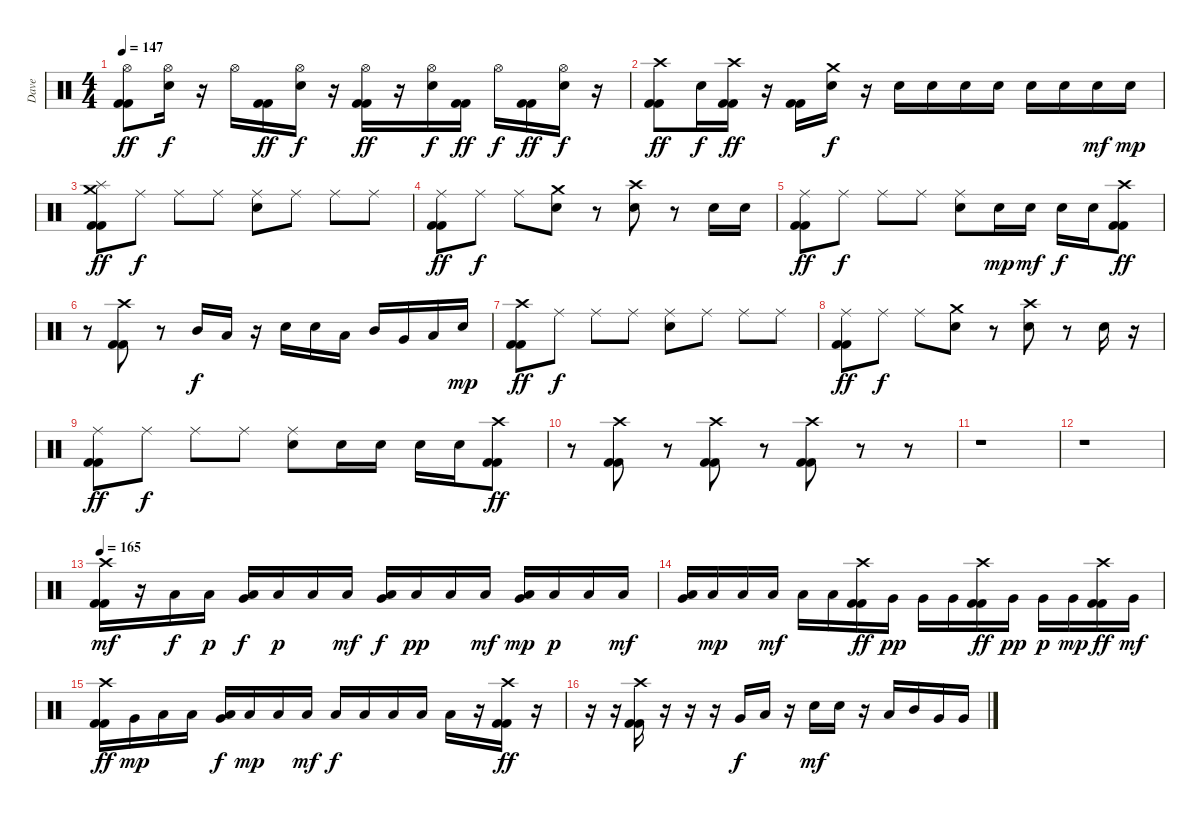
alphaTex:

\track ("Dave" "Dave") {instrument percussion}
\staff {score}
\articulation defaults
\ts (4 4)
\tempo 147
\clef neutral
\ks c
("Hi-Hat (open)" "Kick (hit) 2" "Kick (hit) 2").8{dy ff} ("Hi-Hat (open)" "Electric Snare (hit)").16{dy f} r.16 "Hi-Hat (open)".16 ("Kick (hit) 2" "Kick (hit) 2").16{dy ff} ("Hi-Hat (open)" "Electric Snare (hit)").16{dy f} r.16 ("Hi-Hat (open)" "Kick (hit) 2" "Kick (hit) 2").16{dy ff} r.16 ("Hi-Hat (open)" "Electric Snare (hit)").16{dy f} ("Kick (hit) 2" "Kick (hit) 2").16{dy ff} "Hi-Hat (open)".16{dy f} ("Kick (hit) 2" "Kick (hit) 2").16{dy ff} ("Hi-Hat (open)" "Electric Snare (hit)").16{dy f} r.16 |
("Crash high (hit)" "Kick (hit) 2" "Kick (hit) 2").8{dy ff} "Electric Snare (hit)".16{dy f} ("Crash high (hit)" "Kick (hit) 2" "Kick (hit) 2").16{dy ff} r.16 ("Kick (hit) 2" "Kick (hit) 2").16 ("Crash medium (hit)" "Electric Snare (hit)").16{dy f} r.16 "Electric Snare (hit)".16 "Electric Snare (hit)".16 "Electric Snare (hit)".16 "Electric Snare (hit)".16 "Electric Snare (hit)".16 "Electric Snare (hit)".16 "Electric Snare (hit)".16{dy mf} "Electric Snare (hit)".16{dy mp} |
("Splash (hit)" "Crash medium (hit)" "Kick (hit) 2" "Kick (hit) 2").8{dy ff} "Ride (middle)".8{dy f} "Ride (middle)".8 "Ride (middle)".8 ("Ride (middle)" "Electric Snare (hit)").8 "Ride (middle)".8 "Ride (middle)".8 "Ride (middle)".8 |
("Ride (middle)" "Kick (hit) 2" "Kick (hit) 2").8{dy ff} "Ride (middle)".8{dy f} "Ride (middle)".8 ("Crash medium (hit)" "Electric Snare (hit)").8 r.8 ("Crash high (hit)" "Electric Snare (hit)").8 r.8 "Electric Snare (hit)".16 "Electric Snare (hit)".16 |
("Ride (middle)" "Kick (hit) 2" "Kick (hit) 2").8{dy ff} "Ride (middle)".8{dy f} "Ride (middle)".8 "Ride (middle)".8 ("Ride (middle)" "Electric Snare (hit)").8 "Electric Snare (hit)".16{dy mp} "Electric Snare (hit)".16{dy mf} "Electric Snare (hit)".16{dy f} "Electric Snare (hit)".16 ("Crash high (hit)" "Kick (hit) 2" "Kick (hit) 2").8{dy ff} |
r.8 ("Crash high (hit)" "Kick (hit) 2" "Kick (hit) 2").8 r.8 "Mid Tom (hit)".16{dy f} "Low Tom (hit)".16 r.16 "Electric Snare (hit)".16 "Electric Snare (hit)".16 "Low Tom (hit)".16 "Mid Tom (hit)".16 "Very Low Tom (hit)".16 "Low Floor Tom (hit)".16 "Electric Snare (hit)".16{dy mp} |
("Crash high (hit)" "Kick (hit) 2" "Kick (hit) 2").8{dy ff} "Ride (middle)".8{dy f} "Ride (middle)".8 "Ride (middle)".8 ("Ride (middle)" "Electric Snare (hit)").8 "Ride (middle)".8 "Ride (middle)".8 "Ride (middle)".8 |
("Ride (middle)" "Kick (hit) 2" "Kick (hit) 2").8{dy ff} "Ride (middle)".8{dy f} "Ride (middle)".8 ("Crash medium (hit)" "Electric Snare (hit)").8 r.8 ("Crash high (hit)" "Electric Snare (hit)").8 r.8 "Electric Snare (hit)".16 r.16 |
("Ride (middle)" "Kick (hit) 2" "Kick (hit) 2").8{dy ff} "Ride (middle)".8{dy f} "Ride (middle)".8 "Ride (middle)".8 ("Ride (middle)" "Electric Snare (hit)").8 "Electric Snare (hit)".16 "Electric Snare (hit)".16 "Electric Snare (hit)".16 "Electric Snare (hit)".16 ("Crash high (hit)" "Kick (hit) 2" "Kick (hit) 2").8{dy ff} |
r.8 ("Crash high (hit)" "Kick (hit) 2" "Kick (hit) 2").8 r.8 ("Crash high (hit)" "Kick (hit) 2" "Kick (hit) 2").8 r.8 ("Crash high (hit)" "Kick (hit) 2" "Kick (hit) 2").8 r.8 r.8 |
r.1 |
r.1 |
\tempo 165
("Crash high (hit)" "Kick (hit) 2" "Kick (hit) 2").16{dy mf} r.16 "Low Floor Tom (hit)".16{dy f} "Low Floor Tom (hit)".16{dy p} ("Very Low Tom (hit)" "Low Tom (hit)").16{dy f} "Low Floor Tom (hit)".16{dy p} "Low Floor Tom (hit)".16 "Low Floor Tom (hit)".16{dy mf} ("Very Low Tom (hit)" "Low Tom (hit)").16{dy f} "Low Floor Tom (hit)".16{dy pp} "Low Floor Tom (hit)".16 "Low Floor Tom (hit)".16{dy mf} ("Very Low Tom (hit)" "Low Tom (hit)").16{dy mp} "Low Floor Tom (hit)".16{dy p} "Low Floor Tom (hit)".16 "Low Floor Tom (hit)".16{dy mf} |
("Very Low Tom (hit)" "Low Tom (hit)").16 "Low Floor Tom (hit)".16{dy mp} "Low Floor Tom (hit)".16 "Low Floor Tom (hit)".16{dy mf} "Low Floor Tom (hit)".16 "Low Floor Tom (hit)".16 ("Crash high (hit)" "Kick (hit) 2" "Kick (hit) 2").16{dy ff} "Very Low Tom (hit)".16{dy pp} "Very Low Tom (hit)".16 "Very Low Tom (hit)".16 ("Crash high (hit)" "Kick (hit) 2" "Kick (hit) 2").16{dy ff} "Very Low Tom (hit)".16{dy pp} "Very Low Tom (hit)".16{dy p} "Very Low Tom (hit)".16{dy mp} ("Crash high (hit)" "Kick (hit) 2" "Kick (hit) 2").16{dy ff} "Very Low Tom (hit)".16{dy mf} |
("Crash high (hit)" "Kick (hit) 2" "Kick (hit) 2").16{dy ff} "Very Low Tom (hit)".16{dy mp} "Low Tom (hit)".16 "Low Tom (hit)".16 ("Low Tom (hit)" "Very Low Tom (hit)").16{dy f} "Low Tom (hit)".16{dy mp} "Low Tom (hit)".16 "Low Tom (hit)".16{dy mf} "Low Tom (hit)".16{dy f} "Low Tom (hit)".16 "Low Tom (hit)".16 "Low Tom (hit)".16 "Low Tom (hit)".16 r.16 ("Crash high (hit)" "Kick (hit) 2" "Kick (hit) 2").16{dy ff} r.16 |
r.16 r.16 ("Crash high (hit)" "Kick (hit) 2" "Kick (hit) 2").16 r.16 r.16 r.16 "Very Low Tom (hit)".16{dy f} "Low Tom (hit)".16 r.16 "Electric Snare (hit)".16{dy mf} "Electric Snare (hit)".16 r.16 "Low Tom (hit)".16 "Mid Tom (hit)".16 "Very Low Tom (hit)".16 "Very Low Tom (hit)".16
